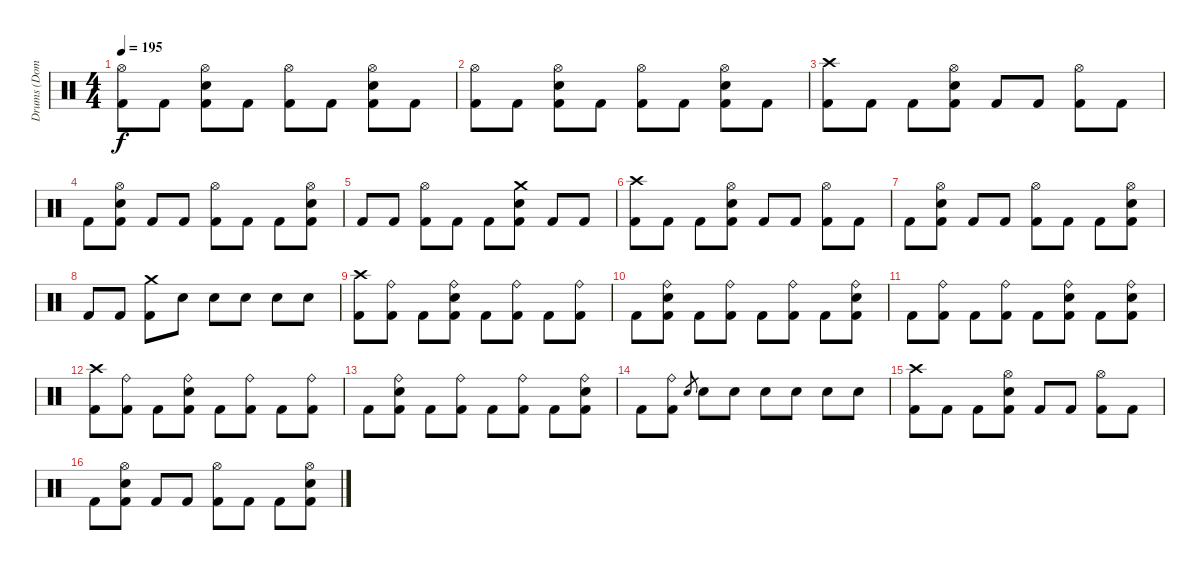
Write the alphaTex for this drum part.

\track ("Drums (Dominik)" "Drums (Dom") {instrument percussion}
\staff {score}
\articulation defaults
\ts (4 4)
\tempo 195
\clef neutral
\ks c
("Hi-Hat (open)" "Kick (hit) 2").8{dy f} "Kick (hit) 2".8 ("Hi-Hat (open)" "Electric Snare (hit)" "Kick (hit) 2").8 "Kick (hit) 2".8 ("Hi-Hat (open)" "Kick (hit) 2").8 "Kick (hit) 2".8 ("Hi-Hat (open)" "Electric Snare (hit)" "Kick (hit) 2").8 "Kick (hit) 2".8 |
("Hi-Hat (open)" "Kick (hit) 2").8 "Kick (hit) 2".8 ("Hi-Hat (open)" "Electric Snare (hit)" "Kick (hit) 2").8 "Kick (hit) 2".8 ("Hi-Hat (open)" "Kick (hit) 2").8 "Kick (hit) 2".8 ("Hi-Hat (open)" "Electric Snare (hit)" "Kick (hit) 2").8 "Kick (hit) 2".8 |
("Crash high (hit)" "Kick (hit) 2").8 "Kick (hit) 2".8 "Kick (hit) 2".8 ("Hi-Hat (open)" "Electric Snare (hit)" "Kick (hit) 2").8 "Kick (hit) 2".8 "Kick (hit) 2".8 ("Hi-Hat (open)" "Kick (hit) 2").8 "Kick (hit) 2".8 |
"Kick (hit) 2".8 ("Hi-Hat (open)" "Electric Snare (hit)" "Kick (hit) 2").8 "Kick (hit) 2".8 "Kick (hit) 2".8 ("Hi-Hat (open)" "Kick (hit) 2").8 "Kick (hit) 2".8 "Kick (hit) 2".8 ("Hi-Hat (open)" "Electric Snare (hit)" "Kick (hit) 2").8 |
"Kick (hit) 2".8 "Kick (hit) 2".8 ("Hi-Hat (open)" "Kick (hit) 2").8 "Kick (hit) 2".8 "Kick (hit) 2".8 ("Crash medium (hit)" "Electric Snare (hit)" "Kick (hit) 2").8 "Kick (hit) 2".8 "Kick (hit) 2".8 |
("Crash high (hit)" "Kick (hit) 2").8 "Kick (hit) 2".8 "Kick (hit) 2".8 ("Hi-Hat (open)" "Electric Snare (hit)" "Kick (hit) 2").8 "Kick (hit) 2".8 "Kick (hit) 2".8 ("Hi-Hat (open)" "Kick (hit) 2").8 "Kick (hit) 2".8 |
"Kick (hit) 2".8 ("Hi-Hat (open)" "Electric Snare (hit)" "Kick (hit) 2").8 "Kick (hit) 2".8 "Kick (hit) 2".8 ("Hi-Hat (open)" "Kick (hit) 2").8 "Kick (hit) 2".8 "Kick (hit) 2".8 ("Hi-Hat (open)" "Electric Snare (hit)" "Kick (hit) 2").8 |
"Kick (hit) 2".8 "Kick (hit) 2".8 ("Crash medium (hit)" "Kick (hit) 2").8 "Electric Snare (hit)".8 "Electric Snare (hit)".8 "Electric Snare (hit)".8 "Electric Snare (hit)".8 "Electric Snare (hit)".8 |
("Crash high (hit)" "Kick (hit) 2").8 ("Ride (bell)" "Kick (hit) 2").8 "Kick (hit) 2".8 ("Ride (bell)" "Electric Snare (hit)" "Kick (hit) 2").8 "Kick (hit) 2".8 ("Ride (bell)" "Kick (hit) 2").8 "Kick (hit) 2".8 ("Ride (bell)" "Kick (hit) 2").8 |
"Kick (hit) 2".8 ("Ride (bell)" "Electric Snare (hit)" "Kick (hit) 2").8 "Kick (hit) 2".8 ("Ride (bell)" "Kick (hit) 2").8 "Kick (hit) 2".8 ("Ride (bell)" "Kick (hit) 2").8 "Kick (hit) 2".8 ("Ride (bell)" "Electric Snare (hit)" "Kick (hit) 2").8 |
"Kick (hit) 2".8 ("Ride (bell)" "Kick (hit) 2").8 "Kick (hit) 2".8 ("Ride (bell)" "Kick (hit) 2").8 "Kick (hit) 2".8 ("Ride (bell)" "Electric Snare (hit)" "Kick (hit) 2").8 "Kick (hit) 2".8 ("Ride (bell)" "Electric Snare (hit)" "Kick (hit) 2").8 |
("Crash high (hit)" "Kick (hit) 2").8 ("Ride (bell)" "Kick (hit) 2").8 "Kick (hit) 2".8 ("Ride (bell)" "Electric Snare (hit)" "Kick (hit) 2").8 "Kick (hit) 2".8 ("Ride (bell)" "Kick (hit) 2").8 "Kick (hit) 2".8 ("Ride (bell)" "Kick (hit) 2").8 |
"Kick (hit) 2".8 ("Ride (bell)" "Electric Snare (hit)" "Kick (hit) 2").8 "Kick (hit) 2".8 ("Ride (bell)" "Kick (hit) 2").8 "Kick (hit) 2".8 ("Ride (bell)" "Kick (hit) 2").8 "Kick (hit) 2".8 ("Ride (bell)" "Electric Snare (hit)" "Kick (hit) 2").8 |
"Kick (hit) 2".8 ("Ride (bell)" "Kick (hit) 2").8 "Electric Snare (hit)".8{gr} "Electric Snare (hit)".8 "Electric Snare (hit)".8 "Electric Snare (hit)".8 "Electric Snare (hit)".8 "Electric Snare (hit)".8 "Electric Snare (hit)".8 |
("Crash high (hit)" "Kick (hit) 2").8 "Kick (hit) 2".8 "Kick (hit) 2".8 ("Hi-Hat (open)" "Electric Snare (hit)" "Kick (hit) 2").8 "Kick (hit) 2".8 "Kick (hit) 2".8 ("Hi-Hat (open)" "Kick (hit) 2").8 "Kick (hit) 2".8 |
"Kick (hit) 2".8 ("Hi-Hat (open)" "Electric Snare (hit)" "Kick (hit) 2").8 "Kick (hit) 2".8 "Kick (hit) 2".8 ("Hi-Hat (open)" "Kick (hit) 2").8 "Kick (hit) 2".8 "Kick (hit) 2".8 ("Hi-Hat (open)" "Electric Snare (hit)" "Kick (hit) 2").8
